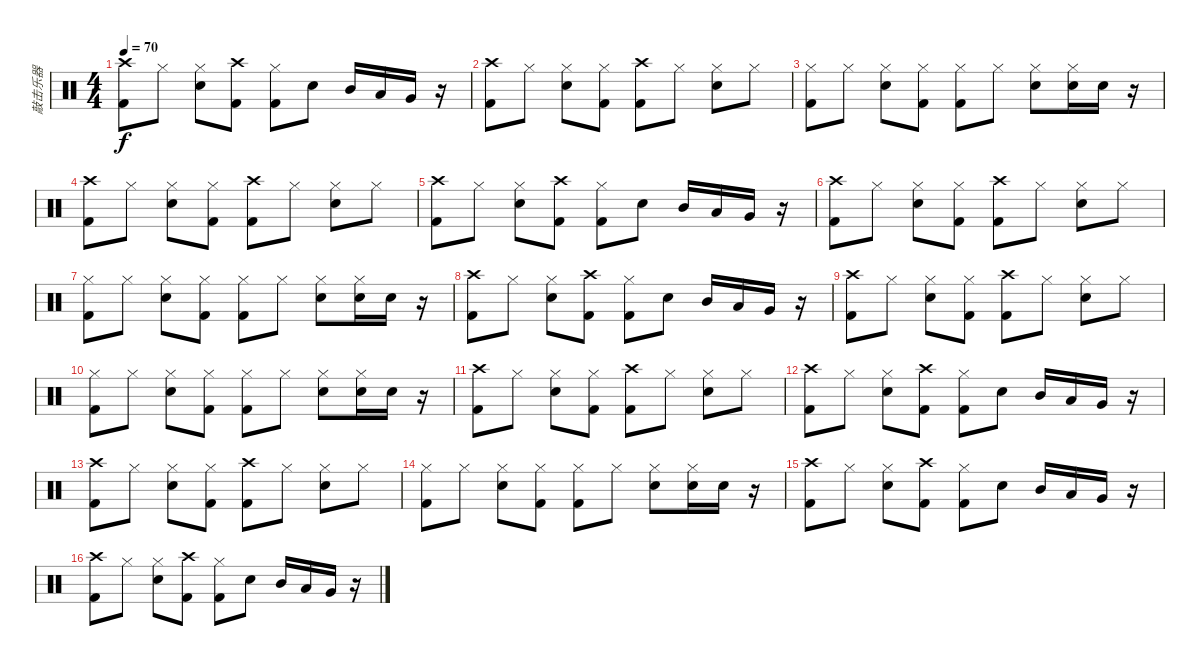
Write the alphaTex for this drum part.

\track ("敲击乐器" "敲击乐器") {instrument percussion}
\staff {score}
\articulation defaults
\ts (4 4)
\tempo 70
\clef neutral
\ks c
("Crash high (hit)" "Kick (hit) 2").8{dy f} "Hi-Hat (closed)".8 ("Hi-Hat (closed)" "Electric Snare (hit)").8 ("Crash high (hit)" "Kick (hit) 2").8 ("Hi-Hat (closed)" "Kick (hit) 2").8 "Electric Snare (hit)".8 "Mid Tom (hit)".16 "Low Tom (hit)".16 "Very Low Tom (hit)".16 r.16 |
("Crash high (hit)" "Kick (hit) 2").8 "Hi-Hat (closed)".8 ("Hi-Hat (closed)" "Electric Snare (hit)").8 ("Hi-Hat (closed)" "Kick (hit) 2").8 ("Crash high (hit)" "Kick (hit) 2").8 "Hi-Hat (closed)".8 ("Hi-Hat (closed)" "Electric Snare (hit)").8 "Hi-Hat (closed)".8 |
("Hi-Hat (closed)" "Kick (hit) 2").8 "Hi-Hat (closed)".8 ("Hi-Hat (closed)" "Electric Snare (hit)").8 ("Hi-Hat (closed)" "Kick (hit) 2").8 ("Hi-Hat (closed)" "Kick (hit) 2").8 "Hi-Hat (closed)".8 ("Hi-Hat (closed)" "Electric Snare (hit)").8 ("Hi-Hat (closed)" "Electric Snare (hit)").16 "Electric Snare (hit)".16 r.16 |
("Crash high (hit)" "Kick (hit) 2").8 "Hi-Hat (closed)".8 ("Hi-Hat (closed)" "Electric Snare (hit)").8 ("Hi-Hat (closed)" "Kick (hit) 2").8 ("Crash high (hit)" "Kick (hit) 2").8 "Hi-Hat (closed)".8 ("Hi-Hat (closed)" "Electric Snare (hit)").8 "Hi-Hat (closed)".8 |
("Crash high (hit)" "Kick (hit) 2").8 "Hi-Hat (closed)".8 ("Hi-Hat (closed)" "Electric Snare (hit)").8 ("Crash high (hit)" "Kick (hit) 2").8 ("Hi-Hat (closed)" "Kick (hit) 2").8 "Electric Snare (hit)".8 "Mid Tom (hit)".16 "Low Tom (hit)".16 "Very Low Tom (hit)".16 r.16 |
("Crash high (hit)" "Kick (hit) 2").8 "Hi-Hat (closed)".8 ("Hi-Hat (closed)" "Electric Snare (hit)").8 ("Hi-Hat (closed)" "Kick (hit) 2").8 ("Crash high (hit)" "Kick (hit) 2").8 "Hi-Hat (closed)".8 ("Hi-Hat (closed)" "Electric Snare (hit)").8 "Hi-Hat (closed)".8 |
("Hi-Hat (closed)" "Kick (hit) 2").8 "Hi-Hat (closed)".8 ("Hi-Hat (closed)" "Electric Snare (hit)").8 ("Hi-Hat (closed)" "Kick (hit) 2").8 ("Hi-Hat (closed)" "Kick (hit) 2").8 "Hi-Hat (closed)".8 ("Hi-Hat (closed)" "Electric Snare (hit)").8 ("Hi-Hat (closed)" "Electric Snare (hit)").16 "Electric Snare (hit)".16 r.16 |
("Crash high (hit)" "Kick (hit) 2").8 "Hi-Hat (closed)".8 ("Hi-Hat (closed)" "Electric Snare (hit)").8 ("Crash high (hit)" "Kick (hit) 2").8 ("Hi-Hat (closed)" "Kick (hit) 2").8 "Electric Snare (hit)".8 "Mid Tom (hit)".16 "Low Tom (hit)".16 "Very Low Tom (hit)".16 r.16 |
("Crash high (hit)" "Kick (hit) 2").8 "Hi-Hat (closed)".8 ("Hi-Hat (closed)" "Electric Snare (hit)").8 ("Hi-Hat (closed)" "Kick (hit) 2").8 ("Crash high (hit)" "Kick (hit) 2").8 "Hi-Hat (closed)".8 ("Hi-Hat (closed)" "Electric Snare (hit)").8 "Hi-Hat (closed)".8 |
("Hi-Hat (closed)" "Kick (hit) 2").8 "Hi-Hat (closed)".8 ("Hi-Hat (closed)" "Electric Snare (hit)").8 ("Hi-Hat (closed)" "Kick (hit) 2").8 ("Hi-Hat (closed)" "Kick (hit) 2").8 "Hi-Hat (closed)".8 ("Hi-Hat (closed)" "Electric Snare (hit)").8 ("Hi-Hat (closed)" "Electric Snare (hit)").16 "Electric Snare (hit)".16 r.16 |
("Crash high (hit)" "Kick (hit) 2").8 "Hi-Hat (closed)".8 ("Hi-Hat (closed)" "Electric Snare (hit)").8 ("Hi-Hat (closed)" "Kick (hit) 2").8 ("Crash high (hit)" "Kick (hit) 2").8 "Hi-Hat (closed)".8 ("Hi-Hat (closed)" "Electric Snare (hit)").8 "Hi-Hat (closed)".8 |
("Crash high (hit)" "Kick (hit) 2").8 "Hi-Hat (closed)".8 ("Hi-Hat (closed)" "Electric Snare (hit)").8 ("Crash high (hit)" "Kick (hit) 2").8 ("Hi-Hat (closed)" "Kick (hit) 2").8 "Electric Snare (hit)".8 "Mid Tom (hit)".16 "Low Tom (hit)".16 "Very Low Tom (hit)".16 r.16 |
("Crash high (hit)" "Kick (hit) 2").8 "Hi-Hat (closed)".8 ("Hi-Hat (closed)" "Electric Snare (hit)").8 ("Hi-Hat (closed)" "Kick (hit) 2").8 ("Crash high (hit)" "Kick (hit) 2").8 "Hi-Hat (closed)".8 ("Hi-Hat (closed)" "Electric Snare (hit)").8 "Hi-Hat (closed)".8 |
("Hi-Hat (closed)" "Kick (hit) 2").8 "Hi-Hat (closed)".8 ("Hi-Hat (closed)" "Electric Snare (hit)").8 ("Hi-Hat (closed)" "Kick (hit) 2").8 ("Hi-Hat (closed)" "Kick (hit) 2").8 "Hi-Hat (closed)".8 ("Hi-Hat (closed)" "Electric Snare (hit)").8 ("Hi-Hat (closed)" "Electric Snare (hit)").16 "Electric Snare (hit)".16 r.16 |
("Crash high (hit)" "Kick (hit) 2").8 "Hi-Hat (closed)".8 ("Hi-Hat (closed)" "Electric Snare (hit)").8 ("Crash high (hit)" "Kick (hit) 2").8 ("Hi-Hat (closed)" "Kick (hit) 2").8 "Electric Snare (hit)".8 "Mid Tom (hit)".16 "Low Tom (hit)".16 "Very Low Tom (hit)".16 r.16 |
("Crash high (hit)" "Kick (hit) 2").8 "Hi-Hat (closed)".8 ("Hi-Hat (closed)" "Electric Snare (hit)").8 ("Crash high (hit)" "Kick (hit) 2").8 ("Hi-Hat (closed)" "Kick (hit) 2").8 "Electric Snare (hit)".8 "Mid Tom (hit)".16 "Low Tom (hit)".16 "Very Low Tom (hit)".16 r.16
